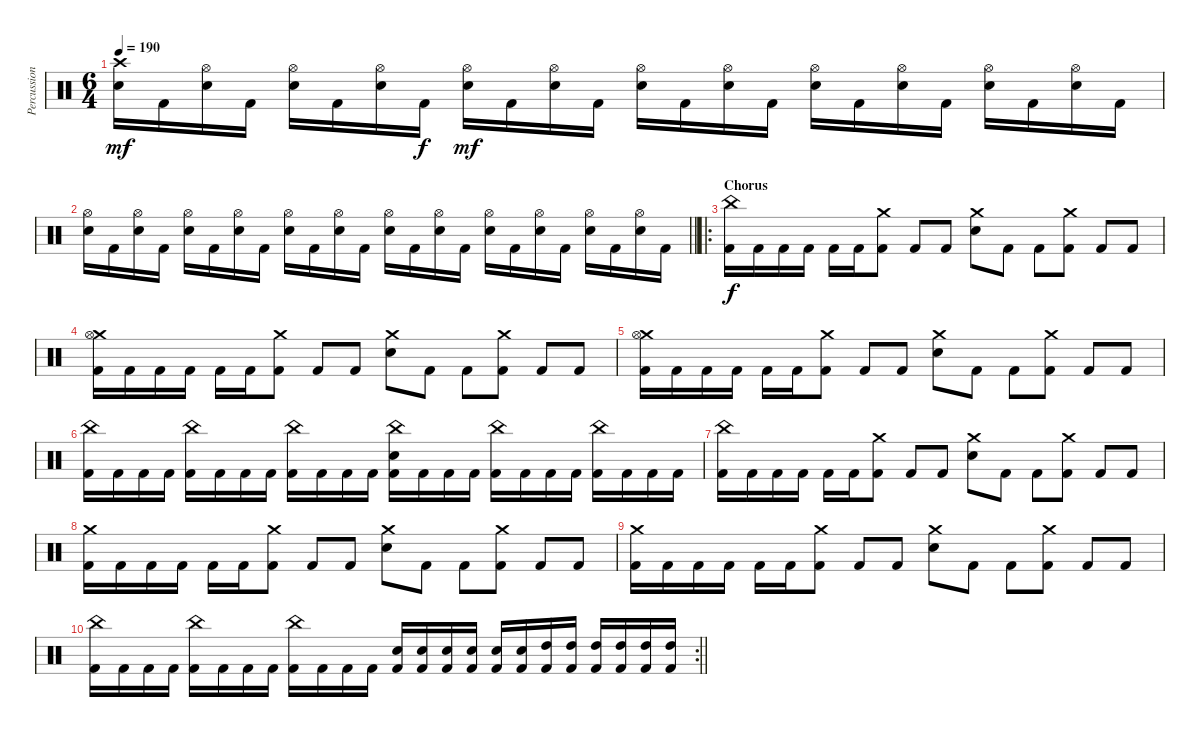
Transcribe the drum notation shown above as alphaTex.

\track ("Percussions" "Percussion") {instrument percussion}
\staff {score}
\articulation defaults
\ts (6 4)
\tempo 190
\clef neutral
\ks c
("Crash high (hit)" "Electric Snare (hit)").16{dy mf} "Kick (hit) 2".16 ("Hi-Hat (open)" "Electric Snare (hit)").16 "Kick (hit) 2".16 ("Hi-Hat (open)" "Electric Snare (hit)").16 "Kick (hit) 2".16 ("Hi-Hat (open)" "Electric Snare (hit)").16 "Kick (hit) 2".16{dy f} ("Hi-Hat (open)" "Electric Snare (hit)").16{dy mf} "Kick (hit) 2".16 ("Hi-Hat (open)" "Electric Snare (hit)").16 "Kick (hit) 2".16 ("Hi-Hat (open)" "Electric Snare (hit)").16 "Kick (hit) 2".16 ("Hi-Hat (open)" "Electric Snare (hit)").16 "Kick (hit) 2".16 ("Hi-Hat (open)" "Electric Snare (hit)").16 "Kick (hit) 2".16 ("Hi-Hat (open)" "Electric Snare (hit)").16 "Kick (hit) 2".16 ("Hi-Hat (open)" "Electric Snare (hit)").16 "Kick (hit) 2".16 ("Hi-Hat (open)" "Electric Snare (hit)").16 "Kick (hit) 2".16 |
\barLineRight lightlight
("Hi-Hat (open)" "Electric Snare (hit)").16 "Kick (hit) 2".16 ("Hi-Hat (open)" "Electric Snare (hit)").16 "Kick (hit) 2".16 ("Hi-Hat (open)" "Electric Snare (hit)").16 "Kick (hit) 2".16 ("Hi-Hat (open)" "Electric Snare (hit)").16 "Kick (hit) 2".16 ("Hi-Hat (open)" "Electric Snare (hit)").16 "Kick (hit) 2".16 ("Hi-Hat (open)" "Electric Snare (hit)").16 "Kick (hit) 2".16 ("Hi-Hat (open)" "Electric Snare (hit)").16 "Kick (hit) 2".16 ("Hi-Hat (open)" "Electric Snare (hit)").16 "Kick (hit) 2".16 ("Hi-Hat (open)" "Electric Snare (hit)").16 "Kick (hit) 2".16 ("Hi-Hat (open)" "Electric Snare (hit)").16 "Kick (hit) 2".16 ("Hi-Hat (open)" "Electric Snare (hit)").16 "Kick (hit) 2".16 ("Hi-Hat (open)" "Electric Snare (hit)").16 "Kick (hit) 2".16 |
\ro
\section ("" "Chorus ")
("China (hit)" "Kick (hit) 2").16{dy f} "Kick (hit) 2".16 "Kick (hit) 2".16 "Kick (hit) 2".16 "Kick (hit) 2".16 "Kick (hit) 2".16 ("Crash medium (hit)" "Kick (hit) 2").8 "Kick (hit) 2".8 "Kick (hit) 2".8 ("Crash medium (hit)" "Electric Snare (hit)").8 "Kick (hit) 2".8 "Kick (hit) 2".8 ("Crash medium (hit)" "Kick (hit) 2").8 "Kick (hit) 2".8 "Kick (hit) 2".8 |
("Crash medium (hit)" "Hi-Hat (open)" "Kick (hit) 2").16 "Kick (hit) 2".16 "Kick (hit) 2".16 "Kick (hit) 2".16 "Kick (hit) 2".16 "Kick (hit) 2".16 ("Crash medium (hit)" "Kick (hit) 2").8 "Kick (hit) 2".8 "Kick (hit) 2".8 ("Crash medium (hit)" "Electric Snare (hit)").8 "Kick (hit) 2".8 "Kick (hit) 2".8 ("Crash medium (hit)" "Kick (hit) 2").8 "Kick (hit) 2".8 "Kick (hit) 2".8 |
("Crash medium (hit)" "Hi-Hat (open)" "Kick (hit) 2").16 "Kick (hit) 2".16 "Kick (hit) 2".16 "Kick (hit) 2".16 "Kick (hit) 2".16 "Kick (hit) 2".16 ("Crash medium (hit)" "Kick (hit) 2").8 "Kick (hit) 2".8 "Kick (hit) 2".8 ("Crash medium (hit)" "Electric Snare (hit)").8 "Kick (hit) 2".8 "Kick (hit) 2".8 ("Crash medium (hit)" "Kick (hit) 2").8 "Kick (hit) 2".8 "Kick (hit) 2".8 |
("China (hit)" "Kick (hit) 2").16 "Kick (hit) 2".16 "Kick (hit) 2".16 "Kick (hit) 2".16 ("China (hit)" "Kick (hit) 2").16 "Kick (hit) 2".16 "Kick (hit) 2".16 "Kick (hit) 2".16 ("China (hit)" "Kick (hit) 2").16 "Kick (hit) 2".16 "Kick (hit) 2".16 "Kick (hit) 2".16 ("China (hit)" "Electric Snare (hit)" "Kick (hit) 2").16 "Kick (hit) 2".16 "Kick (hit) 2".16 "Kick (hit) 2".16 ("China (hit)" "Kick (hit) 2").16 "Kick (hit) 2".16 "Kick (hit) 2".16 "Kick (hit) 2".16 ("China (hit)" "Kick (hit) 2").16 "Kick (hit) 2".16 "Kick (hit) 2".16 "Kick (hit) 2".16 |
("China (hit)" "Kick (hit) 2").16 "Kick (hit) 2".16 "Kick (hit) 2".16 "Kick (hit) 2".16 "Kick (hit) 2".16 "Kick (hit) 2".16 ("Crash medium (hit)" "Kick (hit) 2").8 "Kick (hit) 2".8 "Kick (hit) 2".8 ("Crash medium (hit)" "Electric Snare (hit)").8 "Kick (hit) 2".8 "Kick (hit) 2".8 ("Crash medium (hit)" "Kick (hit) 2").8 "Kick (hit) 2".8 "Kick (hit) 2".8 |
("Crash medium (hit)" "Kick (hit) 2").16 "Kick (hit) 2".16 "Kick (hit) 2".16 "Kick (hit) 2".16 "Kick (hit) 2".16 "Kick (hit) 2".16 ("Crash medium (hit)" "Kick (hit) 2").8 "Kick (hit) 2".8 "Kick (hit) 2".8 ("Crash medium (hit)" "Electric Snare (hit)").8 "Kick (hit) 2".8 "Kick (hit) 2".8 ("Crash medium (hit)" "Kick (hit) 2").8 "Kick (hit) 2".8 "Kick (hit) 2".8 |
("Crash medium (hit)" "Kick (hit) 2").16 "Kick (hit) 2".16 "Kick (hit) 2".16 "Kick (hit) 2".16 "Kick (hit) 2".16 "Kick (hit) 2".16 ("Crash medium (hit)" "Kick (hit) 2").8 "Kick (hit) 2".8 "Kick (hit) 2".8 ("Crash medium (hit)" "Electric Snare (hit)").8 "Kick (hit) 2".8 "Kick (hit) 2".8 ("Crash medium (hit)" "Kick (hit) 2").8 "Kick (hit) 2".8 "Kick (hit) 2".8 |
\rc 2
\barLineRight lightlight
("China (hit)" "Kick (hit) 2").16 "Kick (hit) 2".16 "Kick (hit) 2".16 "Kick (hit) 2".16 ("China (hit)" "Kick (hit) 2").16 "Kick (hit) 2".16 "Kick (hit) 2".16 "Kick (hit) 2".16 ("China (hit)" "Kick (hit) 2").16 "Kick (hit) 2".16 "Kick (hit) 2".16 "Kick (hit) 2".16 ("Electric Snare (hit)" "Kick (hit) 2").16 ("Electric Snare (hit)" "Kick (hit) 2").16 ("Electric Snare (hit)" "Kick (hit) 2").16 ("Electric Snare (hit)" "Kick (hit) 2").16 ("Electric Snare (hit)" "Kick (hit) 2").16 ("Electric Snare (hit)" "Kick (hit) 2").16 ("High Tom (hit)" "Kick (hit) 2").16 ("High Tom (hit)" "Kick (hit) 2").16 ("High Tom (hit)" "Kick (hit) 2").16 ("High Tom (hit)" "Kick (hit) 2").16 ("High Tom (hit)" "Kick (hit) 2").16 ("High Tom (hit)" "Kick (hit) 2").16
